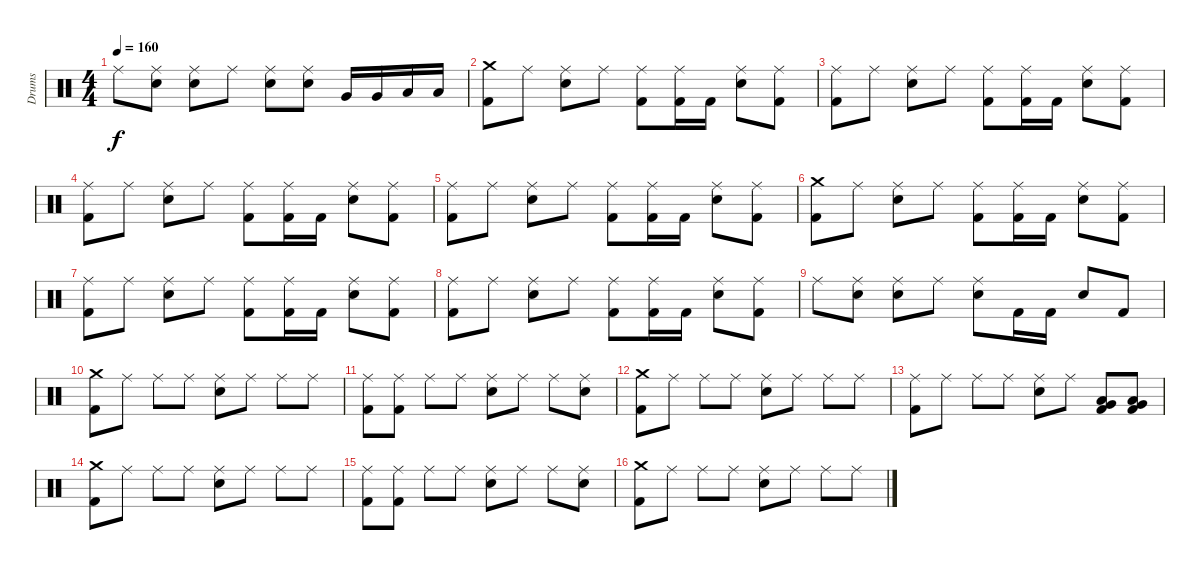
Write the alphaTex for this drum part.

\track ("Drums" "Drums") {instrument percussion}
\staff {score}
\articulation defaults
\ts (4 4)
\tempo 160
\clef neutral
\ks c "Ride (middle)".8{dy f}
("Ride (middle)" "Electric Snare (hit)").8 ("Ride (middle)" "Electric Snare (hit)").8 "Ride (middle)".8 ("Ride (middle)" "Electric Snare (hit)").8 ("Ride (middle)" "Electric Snare (hit)").8 "Very Low Tom (hit)".16 "Very Low Tom (hit)".16 "Low Floor Tom (hit)".16 "Low Floor Tom (hit)".16 |
("Crash medium (hit)" "Kick (hit) 2").8 "Ride (middle)".8 ("Ride (middle)" "Electric Snare (hit)").8 "Ride (middle)".8 ("Ride (middle)" "Kick (hit) 2").8 ("Ride (middle)" "Kick (hit) 2").16 "Kick (hit) 2".16 ("Ride (middle)" "Electric Snare (hit)").8 ("Ride (middle)" "Kick (hit) 2").8 |
("Ride (middle)" "Kick (hit) 2").8 "Ride (middle)".8 ("Ride (middle)" "Electric Snare (hit)").8 "Ride (middle)".8 ("Ride (middle)" "Kick (hit) 2").8 ("Ride (middle)" "Kick (hit) 2").16 "Kick (hit) 2".16 ("Ride (middle)" "Electric Snare (hit)").8 ("Ride (middle)" "Kick (hit) 2").8 |
("Ride (middle)" "Kick (hit) 2").8 "Ride (middle)".8 ("Ride (middle)" "Electric Snare (hit)").8 "Ride (middle)".8 ("Ride (middle)" "Kick (hit) 2").8 ("Ride (middle)" "Kick (hit) 2").16 "Kick (hit) 2".16 ("Ride (middle)" "Electric Snare (hit)").8 ("Ride (middle)" "Kick (hit) 2").8 |
("Ride (middle)" "Kick (hit) 2").8 "Ride (middle)".8 ("Ride (middle)" "Electric Snare (hit)").8 "Ride (middle)".8 ("Ride (middle)" "Kick (hit) 2").8 ("Ride (middle)" "Kick (hit) 2").16 "Kick (hit) 2".16 ("Ride (middle)" "Electric Snare (hit)").8 ("Ride (middle)" "Kick (hit) 2").8 |
("Crash medium (hit)" "Kick (hit) 2").8 "Ride (middle)".8 ("Ride (middle)" "Electric Snare (hit)").8 "Ride (middle)".8 ("Ride (middle)" "Kick (hit) 2").8 ("Ride (middle)" "Kick (hit) 2").16 "Kick (hit) 2".16 ("Ride (middle)" "Electric Snare (hit)").8 ("Ride (middle)" "Kick (hit) 2").8 |
("Ride (middle)" "Kick (hit) 2").8 "Ride (middle)".8 ("Ride (middle)" "Electric Snare (hit)").8 "Ride (middle)".8 ("Ride (middle)" "Kick (hit) 2").8 ("Ride (middle)" "Kick (hit) 2").16 "Kick (hit) 2".16 ("Ride (middle)" "Electric Snare (hit)").8 ("Ride (middle)" "Kick (hit) 2").8 |
("Ride (middle)" "Kick (hit) 2").8 "Ride (middle)".8 ("Ride (middle)" "Electric Snare (hit)").8 "Ride (middle)".8 ("Ride (middle)" "Kick (hit) 2").8 ("Ride (middle)" "Kick (hit) 2").16 "Kick (hit) 2".16 ("Ride (middle)" "Electric Snare (hit)").8 ("Ride (middle)" "Kick (hit) 2").8 |
"Ride (middle)".8 ("Ride (middle)" "Electric Snare (hit)").8 ("Ride (middle)" "Electric Snare (hit)").8 "Ride (middle)".8 ("Ride (middle)" "Electric Snare (hit)").8 "Kick (hit) 2".16 "Kick (hit) 2".16 "Electric Snare (hit)".8 "Kick (hit) 2".8 |
("Crash medium (hit)" "Kick (hit) 2").8 "Ride (middle)".8 "Ride (middle)".8 "Ride (middle)".8 ("Ride (middle)" "Electric Snare (hit)").8 "Ride (middle)".8 "Ride (middle)".8 "Ride (middle)".8 |
("Ride (middle)" "Kick (hit) 2").8 ("Ride (middle)" "Kick (hit) 2").8 "Ride (middle)".8 "Ride (middle)".8 ("Ride (middle)" "Electric Snare (hit)").8 "Ride (middle)".8 "Ride (middle)".8 ("Ride (middle)" "Electric Snare (hit)").8 |
("Crash medium (hit)" "Kick (hit) 2").8 "Ride (middle)".8 "Ride (middle)".8 "Ride (middle)".8 ("Ride (middle)" "Electric Snare (hit)").8 "Ride (middle)".8 "Ride (middle)".8 "Ride (middle)".8 |
("Ride (middle)" "Kick (hit) 2").8 "Ride (middle)".8 "Ride (middle)".8 "Ride (middle)".8 ("Ride (middle)" "Electric Snare (hit)").8 "Ride (middle)".8 ("Kick (hit) 2" "Very Low Tom (hit)" "Low Floor Tom (hit)").8 ("Kick (hit) 2" "Very Low Tom (hit)" "Low Floor Tom (hit)").8 |
("Crash medium (hit)" "Kick (hit) 2").8 "Ride (middle)".8 "Ride (middle)".8 "Ride (middle)".8 ("Ride (middle)" "Electric Snare (hit)").8 "Ride (middle)".8 "Ride (middle)".8 "Ride (middle)".8 |
("Ride (middle)" "Kick (hit) 2").8 ("Ride (middle)" "Kick (hit) 2").8 "Ride (middle)".8 "Ride (middle)".8 ("Ride (middle)" "Electric Snare (hit)").8 "Ride (middle)".8 "Ride (middle)".8 ("Ride (middle)" "Electric Snare (hit)").8 |
("Crash medium (hit)" "Kick (hit) 2").8 "Ride (middle)".8 "Ride (middle)".8 "Ride (middle)".8 ("Ride (middle)" "Electric Snare (hit)").8 "Ride (middle)".8 "Ride (middle)".8 "Ride (middle)".8
